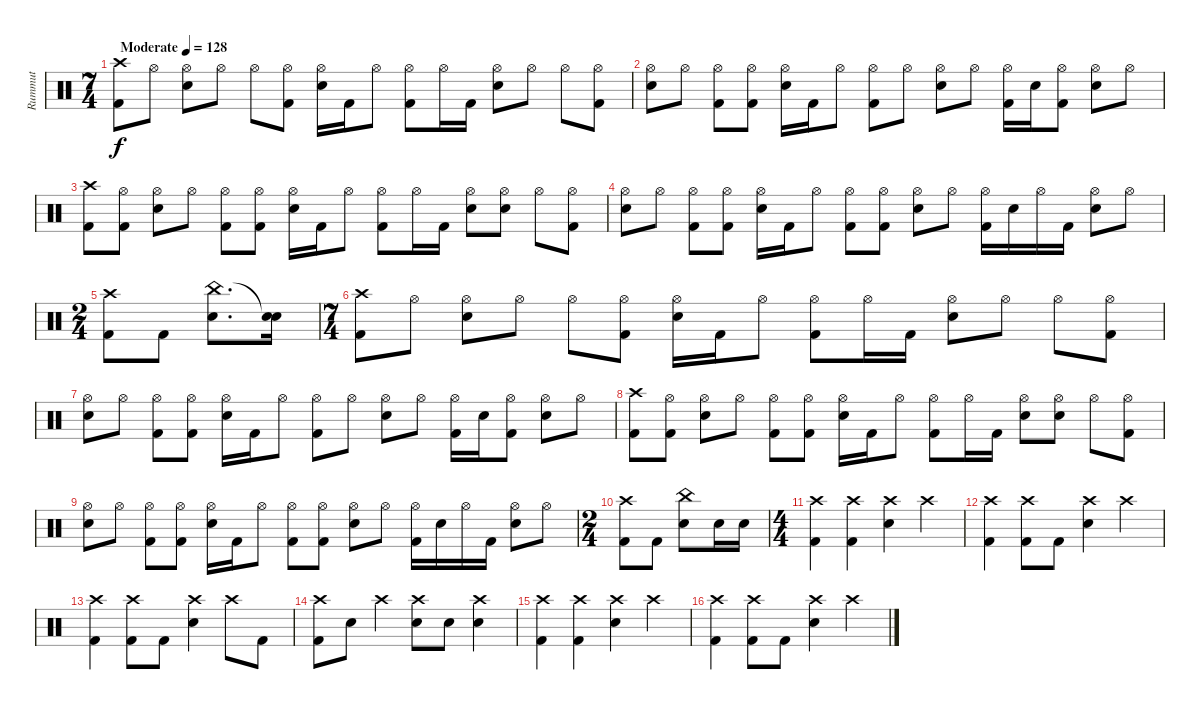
\track ("Rummut" "Rummut") {instrument percussion}
\staff {score}
\articulation defaults
\ts (7 4)
\tempo (128 "Moderate")
\clef neutral
\ks aminor
("Crash high (hit)" "Kick (hit) 2").8{dy f} "Hi-Hat (open)".8 ("Hi-Hat (open)" "Electric Snare (hit)").8 "Hi-Hat (open)".8 "Hi-Hat (open)".8 ("Hi-Hat (open)" "Kick (hit) 2").8 ("Hi-Hat (open)" "Electric Snare (hit)").16 "Kick (hit) 2".16 "Hi-Hat (open)".8 ("Hi-Hat (open)" "Kick (hit) 2").8 "Hi-Hat (open)".16 "Kick (hit) 2".16 ("Hi-Hat (open)" "Electric Snare (hit)").8 "Hi-Hat (open)".8 "Hi-Hat (open)".8 ("Hi-Hat (open)" "Kick (hit) 2").8 |
("Hi-Hat (open)" "Electric Snare (hit)").8 "Hi-Hat (open)".8 ("Hi-Hat (open)" "Kick (hit) 2").8 ("Hi-Hat (open)" "Kick (hit) 2").8 ("Hi-Hat (open)" "Electric Snare (hit)").16 "Kick (hit) 2".16 "Hi-Hat (open)".8 ("Hi-Hat (open)" "Kick (hit) 2").8 "Hi-Hat (open)".8 ("Hi-Hat (open)" "Electric Snare (hit)").8 "Hi-Hat (open)".8 ("Hi-Hat (open)" "Kick (hit) 2").16 "Electric Snare (hit)".16 ("Hi-Hat (open)" "Kick (hit) 2").8 ("Hi-Hat (open)" "Electric Snare (hit)").8 "Hi-Hat (open)".8 |
("Crash high (hit)" "Kick (hit) 2").8 ("Hi-Hat (open)" "Kick (hit) 2").8 ("Hi-Hat (open)" "Electric Snare (hit)").8 "Hi-Hat (open)".8 ("Hi-Hat (open)" "Kick (hit) 2").8 ("Hi-Hat (open)" "Kick (hit) 2").8 ("Hi-Hat (open)" "Electric Snare (hit)").16 "Kick (hit) 2".16 "Hi-Hat (open)".8 ("Hi-Hat (open)" "Kick (hit) 2").8 "Hi-Hat (open)".16 "Kick (hit) 2".16 ("Hi-Hat (open)" "Electric Snare (hit)").8 ("Hi-Hat (open)" "Electric Snare (hit)").8 "Hi-Hat (open)".8 ("Hi-Hat (open)" "Kick (hit) 2").8 |
("Hi-Hat (open)" "Electric Snare (hit)").8 "Hi-Hat (open)".8 ("Hi-Hat (open)" "Kick (hit) 2").8 ("Hi-Hat (open)" "Kick (hit) 2").8 ("Hi-Hat (open)" "Electric Snare (hit)").16 "Kick (hit) 2".16 "Hi-Hat (open)".8 ("Hi-Hat (open)" "Kick (hit) 2").8 ("Hi-Hat (open)" "Kick (hit) 2").8 ("Hi-Hat (open)" "Electric Snare (hit)").8 "Hi-Hat (open)".8 ("Hi-Hat (open)" "Kick (hit) 2").16 "Electric Snare (hit)".16 "Hi-Hat (open)".16 "Kick (hit) 2".16 ("Hi-Hat (open)" "Electric Snare (hit)").8 "Hi-Hat (open)".8 |
\ts (2 4)
("Crash high (hit)" "Kick (hit) 2").8 "Kick (hit) 2".8 ("China (hit)" "Electric Snare (hit)").8{d} ("Snare (hit)"{t} "Electric Snare (hit)").16 |
\ts (7 4)
("Crash high (hit)" "Kick (hit) 2").8 "Hi-Hat (open)".8 ("Hi-Hat (open)" "Electric Snare (hit)").8 "Hi-Hat (open)".8 "Hi-Hat (open)".8 ("Hi-Hat (open)" "Kick (hit) 2").8 ("Hi-Hat (open)" "Electric Snare (hit)").16 "Kick (hit) 2".16 "Hi-Hat (open)".8 ("Hi-Hat (open)" "Kick (hit) 2").8 "Hi-Hat (open)".16 "Kick (hit) 2".16 ("Hi-Hat (open)" "Electric Snare (hit)").8 "Hi-Hat (open)".8 "Hi-Hat (open)".8 ("Hi-Hat (open)" "Kick (hit) 2").8 |
("Hi-Hat (open)" "Electric Snare (hit)").8 "Hi-Hat (open)".8 ("Hi-Hat (open)" "Kick (hit) 2").8 ("Hi-Hat (open)" "Kick (hit) 2").8 ("Hi-Hat (open)" "Electric Snare (hit)").16 "Kick (hit) 2".16 "Hi-Hat (open)".8 ("Hi-Hat (open)" "Kick (hit) 2").8 "Hi-Hat (open)".8 ("Hi-Hat (open)" "Electric Snare (hit)").8 "Hi-Hat (open)".8 ("Hi-Hat (open)" "Kick (hit) 2").16 "Electric Snare (hit)".16 ("Hi-Hat (open)" "Kick (hit) 2").8 ("Hi-Hat (open)" "Electric Snare (hit)").8 "Hi-Hat (open)".8 |
("Crash high (hit)" "Kick (hit) 2").8 ("Hi-Hat (open)" "Kick (hit) 2").8 ("Hi-Hat (open)" "Electric Snare (hit)").8 "Hi-Hat (open)".8 ("Hi-Hat (open)" "Kick (hit) 2").8 ("Hi-Hat (open)" "Kick (hit) 2").8 ("Hi-Hat (open)" "Electric Snare (hit)").16 "Kick (hit) 2".16 "Hi-Hat (open)".8 ("Hi-Hat (open)" "Kick (hit) 2").8 "Hi-Hat (open)".16 "Kick (hit) 2".16 ("Hi-Hat (open)" "Electric Snare (hit)").8 ("Hi-Hat (open)" "Electric Snare (hit)").8 "Hi-Hat (open)".8 ("Hi-Hat (open)" "Kick (hit) 2").8 |
("Hi-Hat (open)" "Electric Snare (hit)").8 "Hi-Hat (open)".8 ("Hi-Hat (open)" "Kick (hit) 2").8 ("Hi-Hat (open)" "Kick (hit) 2").8 ("Hi-Hat (open)" "Electric Snare (hit)").16 "Kick (hit) 2".16 "Hi-Hat (open)".8 ("Hi-Hat (open)" "Kick (hit) 2").8 ("Hi-Hat (open)" "Kick (hit) 2").8 ("Hi-Hat (open)" "Electric Snare (hit)").8 "Hi-Hat (open)".8 ("Hi-Hat (open)" "Kick (hit) 2").16 "Electric Snare (hit)".16 "Hi-Hat (open)".16 "Kick (hit) 2".16 ("Hi-Hat (open)" "Electric Snare (hit)").8 "Hi-Hat (open)".8 |
\ts (2 4)
("Crash high (hit)" "Kick (hit) 2").8 "Kick (hit) 2".8 ("China (hit)" "Electric Snare (hit)").8 "Electric Snare (hit)".16 "Electric Snare (hit)".16 |
\ts (4 4)
("Crash high (hit)" "Kick (hit) 2").4 ("Crash high (hit)" "Kick (hit) 2").4 ("Crash high (hit)" "Electric Snare (hit)").4 "Crash high (hit)".4 |
("Crash high (hit)" "Kick (hit) 2").4 ("Crash high (hit)" "Kick (hit) 2").8 "Kick (hit) 2".8 ("Crash high (hit)" "Electric Snare (hit)").4 "Crash high (hit)".4 |
("Crash high (hit)" "Kick (hit) 2").4 ("Crash high (hit)" "Kick (hit) 2").8 "Kick (hit) 2".8 ("Crash high (hit)" "Electric Snare (hit)").4 "Crash high (hit)".8 "Kick (hit) 2".8 |
("Crash high (hit)" "Kick (hit) 2").8 "Electric Snare (hit)".8 "Crash high (hit)".4 ("Crash high (hit)" "Electric Snare (hit)").8 "Electric Snare (hit)".8 ("Crash high (hit)" "Electric Snare (hit)").4 |
("Crash high (hit)" "Kick (hit) 2").4 ("Crash high (hit)" "Kick (hit) 2").4 ("Crash high (hit)" "Electric Snare (hit)").4 "Crash high (hit)".4 |
("Crash high (hit)" "Kick (hit) 2").4 ("Crash high (hit)" "Kick (hit) 2").8 "Kick (hit) 2".8 ("Crash high (hit)" "Electric Snare (hit)").4 "Crash high (hit)".4
